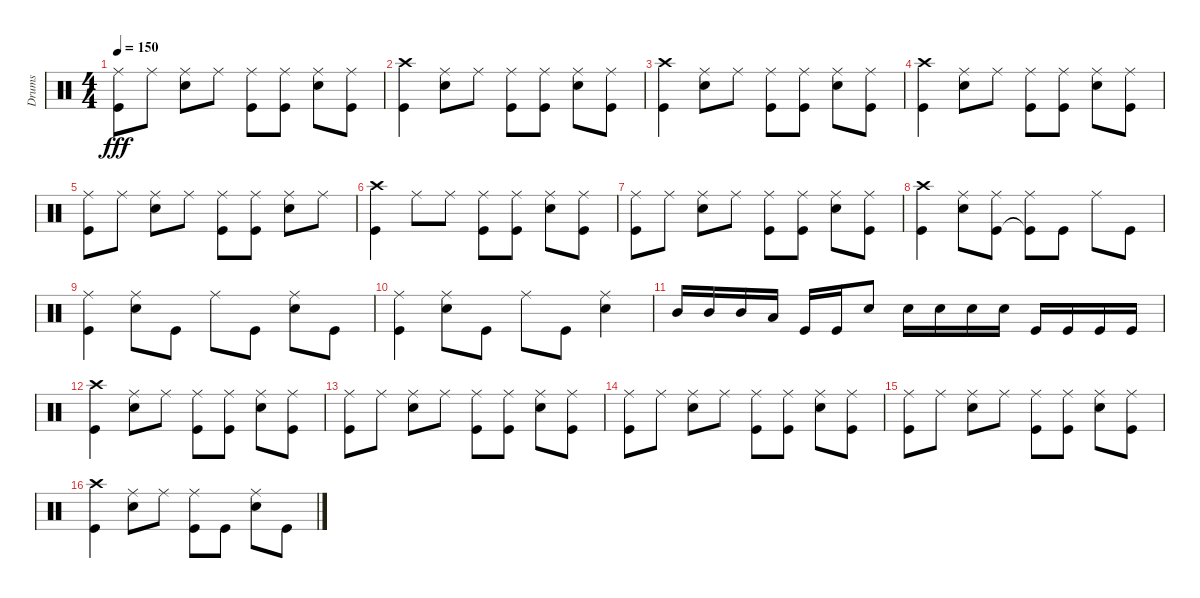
\track ("Drums" "Drums") {instrument percussion}
\staff {score}
\articulation defaults
\ts (4 4)
\tempo 150
\clef neutral
\ks c
("Ride (middle)" "Kick (hit)").8{dy fff} "Ride (middle)".8 ("Ride (middle)" "Snare (hit) 2").8 "Ride (middle)".8 ("Ride (middle)" "Kick (hit)").8 ("Ride (middle)" "Kick (hit)").8 ("Ride (middle)" "Snare (hit) 2").8 ("Ride (middle)" "Kick (hit)").8 |
("Crash high (hit)" "Kick (hit)").4 ("Ride (middle)" "Snare (hit) 2").8 "Ride (middle)".8 ("Ride (middle)" "Kick (hit)").8 ("Ride (middle)" "Kick (hit)").8 ("Ride (middle)" "Snare (hit) 2").8 ("Ride (middle)" "Kick (hit)").8 |
("Crash high (hit)" "Kick (hit)").4 ("Ride (middle)" "Snare (hit) 2").8 "Ride (middle)".8 ("Ride (middle)" "Kick (hit)").8 ("Ride (middle)" "Kick (hit)").8 ("Ride (middle)" "Snare (hit) 2").8 ("Ride (middle)" "Kick (hit)").8 |
("Crash high (hit)" "Kick (hit)").4 ("Ride (middle)" "Snare (hit) 2").8 "Ride (middle)".8 ("Ride (middle)" "Kick (hit)").8 ("Ride (middle)" "Kick (hit)").8 ("Ride (middle)" "Snare (hit) 2").8 ("Ride (middle)" "Kick (hit)").8 |
("Ride (middle)" "Kick (hit)").8 "Ride (middle)".8 ("Ride (middle)" "Snare (hit) 2").8 "Ride (middle)".8 ("Ride (middle)" "Kick (hit)").8 ("Ride (middle)" "Kick (hit)").8 ("Ride (middle)" "Snare (hit) 2").8 "Ride (middle)".8 |
("Crash high (hit)" "Kick (hit)").4 "Ride (middle)".8 "Ride (middle)".8 ("Ride (middle)" "Kick (hit)").8 ("Ride (middle)" "Kick (hit)").8 ("Ride (middle)" "Snare (hit) 2").8 ("Ride (middle)" "Kick (hit)").8 |
("Ride (middle)" "Kick (hit)").8 "Ride (middle)".8 ("Ride (middle)" "Snare (hit) 2").8 "Ride (middle)".8 ("Ride (middle)" "Kick (hit)").8 ("Ride (middle)" "Kick (hit)").8 ("Ride (middle)" "Snare (hit) 2").8 ("Ride (middle)" "Kick (hit)").8 |
("Crash high (hit)" "Kick (hit)").4 ("Ride (middle)" "Snare (hit) 2").8 ("Ride (middle)" "Kick (hit)").8 ("Ride (middle)" "Kick (hit)"{t}).8 "Kick (hit)".8 "Ride (middle)".8 "Kick (hit)".8 |
("Ride (middle)" "Kick (hit)").4 ("Ride (middle)" "Snare (hit) 2").8 "Kick (hit)".8 "Ride (middle)".8 "Kick (hit)".8 ("Ride (middle)" "Snare (hit) 2").8 "Kick (hit)".8 |
("Ride (middle)" "Kick (hit)").4 ("Ride (middle)" "Snare (hit) 2").8 "Kick (hit)".8 "Ride (middle)".8 "Kick (hit)".8 ("Ride (middle)" "Snare (hit) 2").4 |
"Mid Tom (hit)".16 "Mid Tom (hit)".16 "Mid Tom (hit)".16 "Low Tom (hit)".16 "Kick (hit)".16 "Kick (hit)".16 "Snare (hit) 2".8 "Snare (hit) 2".16 "Snare (hit) 2".16 "Snare (hit) 2".16 "Snare (hit) 2".16 "Kick (hit)".16 "Kick (hit)".16 "Kick (hit)".16 "Kick (hit)".16 |
("Crash high (hit)" "Kick (hit)").4 ("Ride (middle)" "Snare (hit) 2").8 "Ride (middle)".8 ("Ride (middle)" "Kick (hit)").8 ("Ride (middle)" "Kick (hit)").8 ("Ride (middle)" "Snare (hit) 2").8 ("Ride (middle)" "Kick (hit)").8 |
("Ride (middle)" "Kick (hit)").8 "Ride (middle)".8 ("Ride (middle)" "Snare (hit) 2").8 "Ride (middle)".8 ("Ride (middle)" "Kick (hit)").8 ("Ride (middle)" "Kick (hit)").8 ("Ride (middle)" "Snare (hit) 2").8 ("Ride (middle)" "Kick (hit)").8 |
("Ride (middle)" "Kick (hit)").8 "Ride (middle)".8 ("Ride (middle)" "Snare (hit) 2").8 "Ride (middle)".8 ("Ride (middle)" "Kick (hit)").8 ("Ride (middle)" "Kick (hit)").8 ("Ride (middle)" "Snare (hit) 2").8 ("Ride (middle)" "Kick (hit)").8 |
("Ride (middle)" "Kick (hit)").8 "Ride (middle)".8 ("Ride (middle)" "Snare (hit) 2").8 "Ride (middle)".8 ("Ride (middle)" "Kick (hit)").8 ("Ride (middle)" "Kick (hit)").8 ("Ride (middle)" "Snare (hit) 2").8 ("Ride (middle)" "Kick (hit)").8 |
("Crash high (hit)" "Kick (hit)").4 ("Ride (middle)" "Snare (hit) 2").8 "Ride (middle)".8 ("Ride (middle)" "Kick (hit)").8 "Kick (hit)".8 ("Ride (middle)" "Snare (hit) 2").8 "Kick (hit)".8
